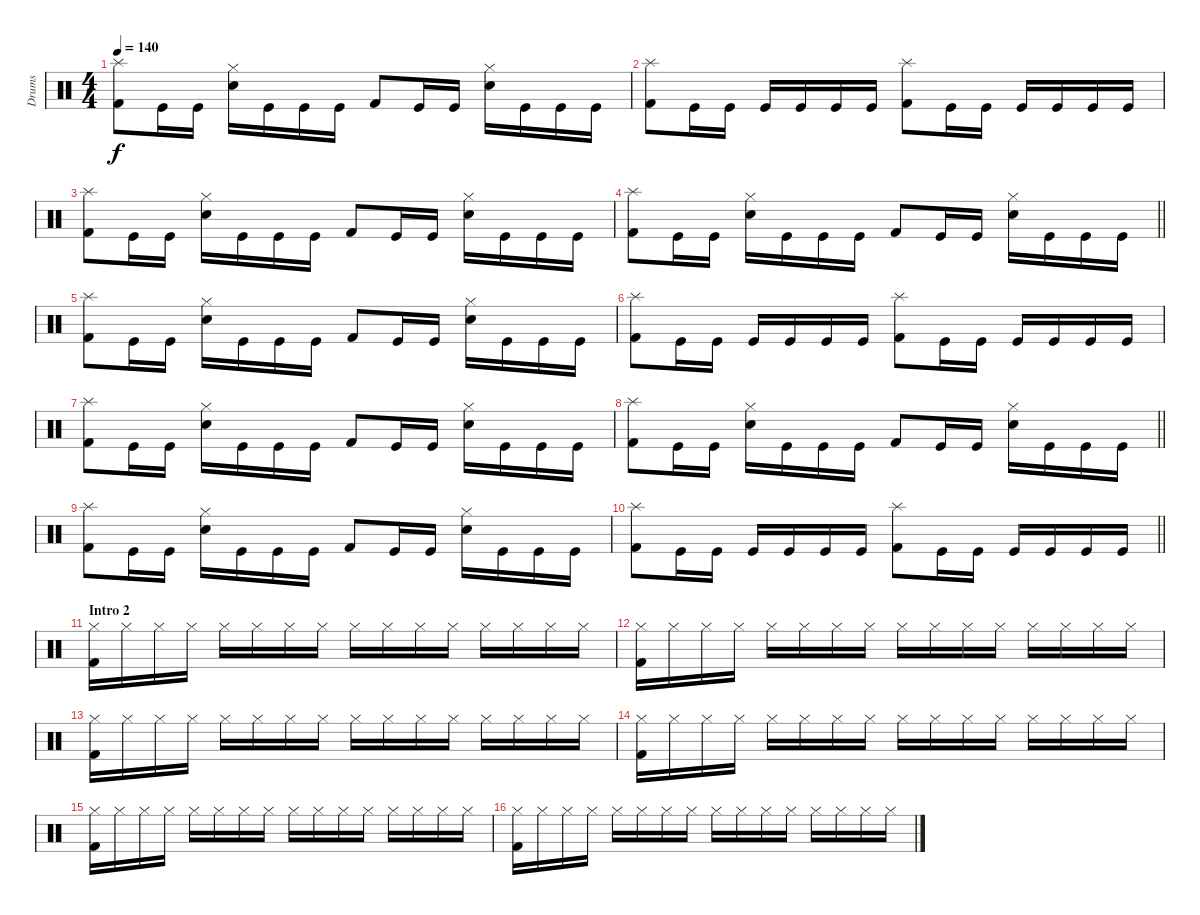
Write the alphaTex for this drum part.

\track ("Drums" "Drums") {instrument percussion}
\staff {score}
\articulation defaults
\ts (4 4)
\tempo 140
\clef neutral
\ks c
("Splash (hit)" "Kick (hit) 2").8{dy f} "Kick (hit)".16 "Kick (hit)".16 ("Snare (hit) 2" "Hi-Hat (closed)").16 "Kick (hit)".16 "Kick (hit)".16 "Kick (hit)".16 "Kick (hit) 2".8 "Kick (hit)".16 "Kick (hit)".16 ("Snare (hit) 2" "Hi-Hat (closed)").16 "Kick (hit)".16 "Kick (hit)".16 "Kick (hit)".16 |
("Splash (hit)" "Kick (hit) 2").8 "Kick (hit)".16 "Kick (hit)".16 "Kick (hit)".16 "Kick (hit)".16 "Kick (hit)".16 "Kick (hit)".16 ("Splash (hit)" "Kick (hit) 2").8 "Kick (hit)".16 "Kick (hit)".16 "Kick (hit)".16 "Kick (hit)".16 "Kick (hit)".16 "Kick (hit)".16 |
("Splash (hit)" "Kick (hit) 2").8 "Kick (hit)".16 "Kick (hit)".16 ("Snare (hit) 2" "Hi-Hat (closed)").16 "Kick (hit)".16 "Kick (hit)".16 "Kick (hit)".16 "Kick (hit) 2".8 "Kick (hit)".16 "Kick (hit)".16 ("Snare (hit) 2" "Hi-Hat (closed)").16 "Kick (hit)".16 "Kick (hit)".16 "Kick (hit)".16 |
\barLineRight lightlight
("Splash (hit)" "Kick (hit) 2").8 "Kick (hit)".16 "Kick (hit)".16 ("Snare (hit) 2" "Hi-Hat (closed)").16 "Kick (hit)".16 "Kick (hit)".16 "Kick (hit)".16 "Kick (hit) 2".8 "Kick (hit)".16 "Kick (hit)".16 ("Snare (hit) 2" "Hi-Hat (closed)").16 "Kick (hit)".16 "Kick (hit)".16 "Kick (hit)".16 |
("Splash (hit)" "Kick (hit) 2").8 "Kick (hit)".16 "Kick (hit)".16 ("Snare (hit) 2" "Hi-Hat (closed)").16 "Kick (hit)".16 "Kick (hit)".16 "Kick (hit)".16 "Kick (hit) 2".8 "Kick (hit)".16 "Kick (hit)".16 ("Snare (hit) 2" "Hi-Hat (closed)").16 "Kick (hit)".16 "Kick (hit)".16 "Kick (hit)".16 |
("Splash (hit)" "Kick (hit) 2").8 "Kick (hit)".16 "Kick (hit)".16 "Kick (hit)".16 "Kick (hit)".16 "Kick (hit)".16 "Kick (hit)".16 ("Splash (hit)" "Kick (hit) 2").8 "Kick (hit)".16 "Kick (hit)".16 "Kick (hit)".16 "Kick (hit)".16 "Kick (hit)".16 "Kick (hit)".16 |
("Splash (hit)" "Kick (hit) 2").8 "Kick (hit)".16 "Kick (hit)".16 ("Snare (hit) 2" "Hi-Hat (closed)").16 "Kick (hit)".16 "Kick (hit)".16 "Kick (hit)".16 "Kick (hit) 2".8 "Kick (hit)".16 "Kick (hit)".16 ("Snare (hit) 2" "Hi-Hat (closed)").16 "Kick (hit)".16 "Kick (hit)".16 "Kick (hit)".16 |
\barLineRight lightlight
("Splash (hit)" "Kick (hit) 2").8 "Kick (hit)".16 "Kick (hit)".16 ("Snare (hit) 2" "Hi-Hat (closed)").16 "Kick (hit)".16 "Kick (hit)".16 "Kick (hit)".16 "Kick (hit) 2".8 "Kick (hit)".16 "Kick (hit)".16 ("Snare (hit) 2" "Hi-Hat (closed)").16 "Kick (hit)".16 "Kick (hit)".16 "Kick (hit)".16 |
("Splash (hit)" "Kick (hit) 2").8 "Kick (hit)".16 "Kick (hit)".16 ("Snare (hit) 2" "Hi-Hat (closed)").16 "Kick (hit)".16 "Kick (hit)".16 "Kick (hit)".16 "Kick (hit) 2".8 "Kick (hit)".16 "Kick (hit)".16 ("Snare (hit) 2" "Hi-Hat (closed)").16 "Kick (hit)".16 "Kick (hit)".16 "Kick (hit)".16 |
\barLineRight lightlight
("Splash (hit)" "Kick (hit) 2").8 "Kick (hit)".16 "Kick (hit)".16 "Kick (hit)".16 "Kick (hit)".16 "Kick (hit)".16 "Kick (hit)".16 ("Splash (hit)" "Kick (hit) 2").8 "Kick (hit)".16 "Kick (hit)".16 "Kick (hit)".16 "Kick (hit)".16 "Kick (hit)".16 "Kick (hit)".16 |
\section ("" "Intro 2")
("Hi-Hat (closed)" "Kick (hit) 2").16 "Hi-Hat (closed)".16 "Hi-Hat (closed)".16 "Hi-Hat (closed)".16 "Hi-Hat (closed)".16 "Hi-Hat (closed)".16 "Hi-Hat (closed)".16 "Hi-Hat (closed)".16 "Hi-Hat (closed)".16 "Hi-Hat (closed)".16 "Hi-Hat (closed)".16 "Hi-Hat (closed)".16 "Hi-Hat (closed)".16 "Hi-Hat (closed)".16 "Hi-Hat (closed)".16 "Hi-Hat (closed)".16 |
("Hi-Hat (closed)" "Kick (hit) 2").16 "Hi-Hat (closed)".16 "Hi-Hat (closed)".16 "Hi-Hat (closed)".16 "Hi-Hat (closed)".16 "Hi-Hat (closed)".16 "Hi-Hat (closed)".16 "Hi-Hat (closed)".16 "Hi-Hat (closed)".16 "Hi-Hat (closed)".16 "Hi-Hat (closed)".16 "Hi-Hat (closed)".16 "Hi-Hat (closed)".16 "Hi-Hat (closed)".16 "Hi-Hat (closed)".16 "Hi-Hat (closed)".16 |
("Hi-Hat (closed)" "Kick (hit) 2").16 "Hi-Hat (closed)".16 "Hi-Hat (closed)".16 "Hi-Hat (closed)".16 "Hi-Hat (closed)".16 "Hi-Hat (closed)".16 "Hi-Hat (closed)".16 "Hi-Hat (closed)".16 "Hi-Hat (closed)".16 "Hi-Hat (closed)".16 "Hi-Hat (closed)".16 "Hi-Hat (closed)".16 "Hi-Hat (closed)".16 "Hi-Hat (closed)".16 "Hi-Hat (closed)".16 "Hi-Hat (closed)".16 |
("Hi-Hat (closed)" "Kick (hit) 2").16 "Hi-Hat (closed)".16 "Hi-Hat (closed)".16 "Hi-Hat (closed)".16 "Hi-Hat (closed)".16 "Hi-Hat (closed)".16 "Hi-Hat (closed)".16 "Hi-Hat (closed)".16 "Hi-Hat (closed)".16 "Hi-Hat (closed)".16 "Hi-Hat (closed)".16 "Hi-Hat (closed)".16 "Hi-Hat (closed)".16 "Hi-Hat (closed)".16 "Hi-Hat (closed)".16 "Hi-Hat (closed)".16 |
("Hi-Hat (closed)" "Kick (hit) 2").16 "Hi-Hat (closed)".16 "Hi-Hat (closed)".16 "Hi-Hat (closed)".16 "Hi-Hat (closed)".16 "Hi-Hat (closed)".16 "Hi-Hat (closed)".16 "Hi-Hat (closed)".16 "Hi-Hat (closed)".16 "Hi-Hat (closed)".16 "Hi-Hat (closed)".16 "Hi-Hat (closed)".16 "Hi-Hat (closed)".16 "Hi-Hat (closed)".16 "Hi-Hat (closed)".16 "Hi-Hat (closed)".16 |
("Hi-Hat (closed)" "Kick (hit) 2").16 "Hi-Hat (closed)".16 "Hi-Hat (closed)".16 "Hi-Hat (closed)".16 "Hi-Hat (closed)".16 "Hi-Hat (closed)".16 "Hi-Hat (closed)".16 "Hi-Hat (closed)".16 "Hi-Hat (closed)".16 "Hi-Hat (closed)".16 "Hi-Hat (closed)".16 "Hi-Hat (closed)".16 "Hi-Hat (closed)".16 "Hi-Hat (closed)".16 "Hi-Hat (closed)".16 "Hi-Hat (closed)".16
